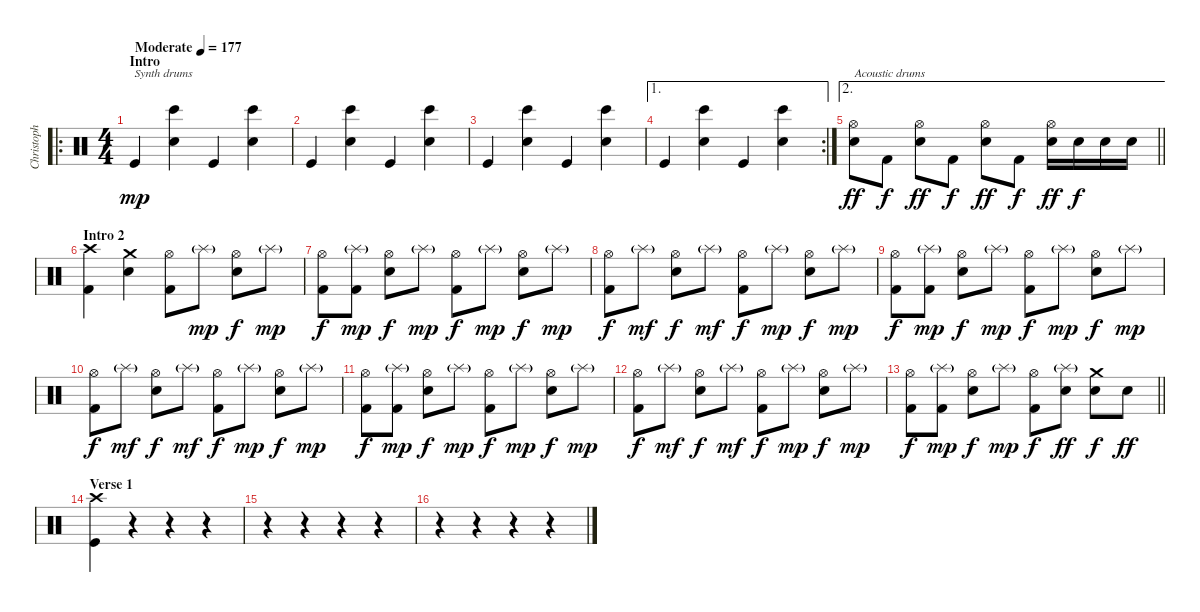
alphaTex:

\track ("Christoph Schneider [drums]" "Christoph ") {instrument percussion}
\staff {score}
\articulation defaults
\ro
\ts (4 4)
\section ("" "Intro")
\tempo (177 "Moderate")
\clef neutral
\ks c "Kick (hit)".4{txt "Synth drums" dy mp volume 11}
("Bongo High (hit)" "Snare (hit) 2").4 "Kick (hit)".4 ("Bongo High (hit)" "Snare (hit) 2").4 |
"Kick (hit)".4 ("Bongo High (hit)" "Snare (hit) 2").4 "Kick (hit)".4 ("Bongo High (hit)" "Snare (hit) 2").4 |
"Kick (hit)".4 ("Bongo High (hit)" "Snare (hit) 2").4 "Kick (hit)".4 ("Bongo High (hit)" "Snare (hit) 2").4 |
\ae 1
\rc 2 "Kick (hit)".4
("Bongo High (hit)" "Snare (hit) 2").4 "Kick (hit)".4 ("Bongo High (hit)" "Snare (hit) 2").4 |
\ae 2
\barLineRight lightlight
("Hi-Hat (open)" "Snare (hit) 2").8{txt "Acoustic drums" dy ff volume 16} "Kick (hit) 2".8{dy f} ("Hi-Hat (open)" "Snare (hit) 2").8{dy ff} "Kick (hit) 2".8{dy f} ("Hi-Hat (open)" "Snare (hit) 2").8{dy ff} "Kick (hit) 2".8{dy f} ("Hi-Hat (open)" "Snare (hit) 2").16{dy ff} "Snare (hit) 2".16{dy f} "Snare (hit) 2".16 "Snare (hit) 2".16 |
\section ("" "Intro 2")
("Crash high (hit)" "Kick (hit) 2").4 ("Crash medium (hit)" "Snare (hit) 2").4 ("Hi-Hat (open)" "Kick (hit) 2").8 "Splash (hit)"{g}.8{dy mp} ("Hi-Hat (open)" "Snare (hit) 2").8{dy f} "Splash (hit)"{g}.8{dy mp} |
("Hi-Hat (open)" "Kick (hit) 2").8{dy f} ("Splash (hit)"{g} "Kick (hit) 2").8{dy mp} ("Hi-Hat (open)" "Snare (hit) 2").8{dy f} "Splash (hit)"{g}.8{dy mp} ("Hi-Hat (open)" "Kick (hit) 2").8{dy f} "Splash (hit)"{g}.8{dy mp} ("Hi-Hat (open)" "Snare (hit) 2").8{dy f} "Splash (hit)"{g}.8{dy mp} |
("Hi-Hat (open)" "Kick (hit) 2").8{dy f} "Splash (hit)"{g}.8{dy mf} ("Hi-Hat (open)" "Snare (hit) 2").8{dy f} "Splash (hit)"{g}.8{dy mf} ("Hi-Hat (open)" "Kick (hit) 2").8{dy f} "Splash (hit)"{g}.8{dy mp} ("Hi-Hat (open)" "Snare (hit) 2").8{dy f} "Splash (hit)"{g}.8{dy mp} |
("Hi-Hat (open)" "Kick (hit) 2").8{dy f} ("Splash (hit)"{g} "Kick (hit) 2").8{dy mp} ("Hi-Hat (open)" "Snare (hit) 2").8{dy f} "Splash (hit)"{g}.8{dy mp} ("Hi-Hat (open)" "Kick (hit) 2").8{dy f} "Splash (hit)"{g}.8{dy mp} ("Hi-Hat (open)" "Snare (hit) 2").8{dy f} "Splash (hit)"{g}.8{dy mp} |
("Hi-Hat (open)" "Kick (hit) 2").8{dy f} "Splash (hit)"{g}.8{dy mf} ("Hi-Hat (open)" "Snare (hit) 2").8{dy f} "Splash (hit)"{g}.8{dy mf} ("Hi-Hat (open)" "Kick (hit) 2").8{dy f} "Splash (hit)"{g}.8{dy mp} ("Hi-Hat (open)" "Snare (hit) 2").8{dy f} "Splash (hit)"{g}.8{dy mp} |
("Hi-Hat (open)" "Kick (hit) 2").8{dy f} ("Splash (hit)"{g} "Kick (hit) 2").8{dy mp} ("Hi-Hat (open)" "Snare (hit) 2").8{dy f} "Splash (hit)"{g}.8{dy mp} ("Hi-Hat (open)" "Kick (hit) 2").8{dy f} "Splash (hit)"{g}.8{dy mp} ("Hi-Hat (open)" "Snare (hit) 2").8{dy f} "Splash (hit)"{g}.8{dy mp} |
("Hi-Hat (open)" "Kick (hit) 2").8{dy f} "Splash (hit)"{g}.8{dy mf} ("Hi-Hat (open)" "Snare (hit) 2").8{dy f} "Splash (hit)"{g}.8{dy mf} ("Hi-Hat (open)" "Kick (hit) 2").8{dy f} "Splash (hit)"{g}.8{dy mp} ("Hi-Hat (open)" "Snare (hit) 2").8{dy f} "Splash (hit)"{g}.8{dy mp} |
\barLineRight lightlight
("Hi-Hat (open)" "Kick (hit) 2").8{dy f} ("Splash (hit)"{g} "Kick (hit) 2").8{dy mp} ("Hi-Hat (open)" "Snare (hit) 2").8{dy f} "Splash (hit)"{g}.8{dy mp} ("Hi-Hat (open)" "Kick (hit) 2").8{dy f} ("Splash (hit)"{g} "Snare (hit) 2").8{dy ff} ("Crash medium (hit)" "Snare (hit) 2").8{dy f} "Snare (hit) 2".8{dy ff} |
\section ("" "Verse 1")
("Crash high (hit)" "Kick (hit)").4 r.4 r.4 r.4 |
r.4 r.4 r.4 r.4 |
r.4 r.4 r.4 r.4
